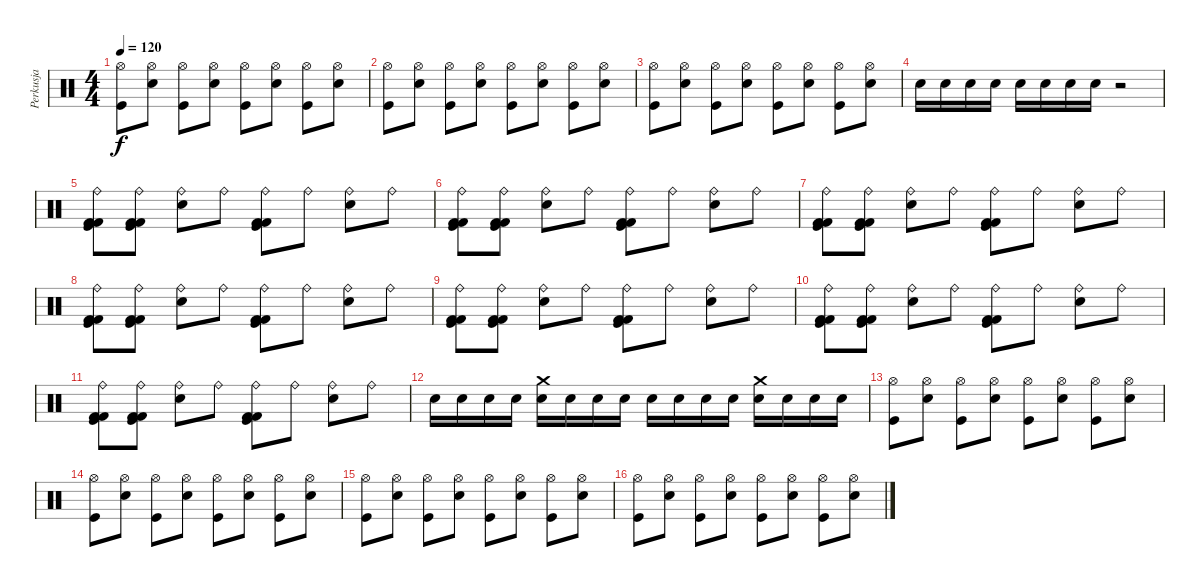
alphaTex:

\track ("Perkusja" "Perkusja") {instrument percussion}
\staff {score}
\articulation defaults
\ts (4 4)
\tempo 120
\clef neutral
\ks c
("Kick (hit)" "Hi-Hat (open)").8{dy f} ("Snare (hit) 2" "Hi-Hat (open)").8 ("Kick (hit)" "Hi-Hat (open)").8 ("Snare (hit) 2" "Hi-Hat (open)").8 ("Kick (hit)" "Hi-Hat (open)").8 ("Snare (hit) 2" "Hi-Hat (open)").8 ("Kick (hit)" "Hi-Hat (open)").8 ("Snare (hit) 2" "Hi-Hat (open)").8 |
("Kick (hit)" "Hi-Hat (open)").8 ("Snare (hit) 2" "Hi-Hat (open)").8 ("Kick (hit)" "Hi-Hat (open)").8 ("Snare (hit) 2" "Hi-Hat (open)").8 ("Kick (hit)" "Hi-Hat (open)").8 ("Snare (hit) 2" "Hi-Hat (open)").8 ("Kick (hit)" "Hi-Hat (open)").8 ("Snare (hit) 2" "Hi-Hat (open)").8 |
("Kick (hit)" "Hi-Hat (open)").8 ("Snare (hit) 2" "Hi-Hat (open)").8 ("Kick (hit)" "Hi-Hat (open)").8 ("Snare (hit) 2" "Hi-Hat (open)").8 ("Kick (hit)" "Hi-Hat (open)").8 ("Snare (hit) 2" "Hi-Hat (open)").8 ("Kick (hit)" "Hi-Hat (open)").8 ("Snare (hit) 2" "Hi-Hat (open)").8 |
"Snare (hit) 2".16 "Snare (hit) 2".16 "Snare (hit) 2".16 "Snare (hit) 2".16 "Snare (hit) 2".16 "Snare (hit) 2".16 "Snare (hit) 2".16 "Snare (hit) 2".16 r.2 |
("Kick (hit) 2" "Ride (bell)" "Kick (hit) 2" "Kick (hit)").8 ("Kick (hit) 2" "Ride (bell)" "Kick (hit) 2" "Kick (hit)").8 ("Ride (bell)" "Snare (hit) 2").8 "Ride (bell)".8 ("Kick (hit) 2" "Ride (bell)" "Kick (hit) 2" "Kick (hit)").8 "Ride (bell)".8 ("Ride (bell)" "Snare (hit) 2").8 "Ride (bell)".8 |
("Kick (hit) 2" "Ride (bell)" "Kick (hit) 2" "Kick (hit)").8 ("Kick (hit) 2" "Ride (bell)" "Kick (hit) 2" "Kick (hit)").8 ("Ride (bell)" "Snare (hit) 2").8 "Ride (bell)".8 ("Kick (hit) 2" "Ride (bell)" "Kick (hit) 2" "Kick (hit)").8 "Ride (bell)".8 ("Ride (bell)" "Snare (hit) 2").8 "Ride (bell)".8 |
("Kick (hit) 2" "Ride (bell)" "Kick (hit) 2" "Kick (hit)").8 ("Kick (hit) 2" "Ride (bell)" "Kick (hit) 2" "Kick (hit)").8 ("Ride (bell)" "Snare (hit) 2").8 "Ride (bell)".8 ("Kick (hit) 2" "Ride (bell)" "Kick (hit) 2" "Kick (hit)").8 "Ride (bell)".8 ("Ride (bell)" "Snare (hit) 2").8 "Ride (bell)".8 |
("Kick (hit) 2" "Ride (bell)" "Kick (hit) 2" "Kick (hit)").8 ("Kick (hit) 2" "Ride (bell)" "Kick (hit) 2" "Kick (hit)").8 ("Ride (bell)" "Snare (hit) 2").8 "Ride (bell)".8 ("Kick (hit) 2" "Ride (bell)" "Kick (hit) 2" "Kick (hit)").8 "Ride (bell)".8 ("Ride (bell)" "Snare (hit) 2").8 "Ride (bell)".8 |
("Kick (hit) 2" "Ride (bell)" "Kick (hit) 2" "Kick (hit)").8 ("Kick (hit) 2" "Ride (bell)" "Kick (hit) 2" "Kick (hit)").8 ("Ride (bell)" "Snare (hit) 2").8 "Ride (bell)".8 ("Kick (hit) 2" "Ride (bell)" "Kick (hit) 2" "Kick (hit)").8 "Ride (bell)".8 ("Ride (bell)" "Snare (hit) 2").8 "Ride (bell)".8 |
("Kick (hit) 2" "Ride (bell)" "Kick (hit) 2" "Kick (hit)").8 ("Kick (hit) 2" "Ride (bell)" "Kick (hit) 2" "Kick (hit)").8 ("Ride (bell)" "Snare (hit) 2").8 "Ride (bell)".8 ("Kick (hit) 2" "Ride (bell)" "Kick (hit) 2" "Kick (hit)").8 "Ride (bell)".8 ("Ride (bell)" "Snare (hit) 2").8 "Ride (bell)".8 |
("Kick (hit) 2" "Ride (bell)" "Kick (hit) 2" "Kick (hit)").8 ("Kick (hit) 2" "Ride (bell)" "Kick (hit) 2" "Kick (hit)").8 ("Ride (bell)" "Snare (hit) 2").8 "Ride (bell)".8 ("Kick (hit) 2" "Ride (bell)" "Kick (hit) 2" "Kick (hit)").8 "Ride (bell)".8 ("Ride (bell)" "Snare (hit) 2").8 "Ride (bell)".8 |
"Snare (hit) 2".16 "Snare (hit) 2".16 "Snare (hit) 2".16 "Snare (hit) 2".16 ("Crash medium (hit)" "Snare (hit) 2").16 "Snare (hit) 2".16 "Snare (hit) 2".16 "Snare (hit) 2".16 "Snare (hit) 2".16 "Snare (hit) 2".16 "Snare (hit) 2".16 "Snare (hit) 2".16 ("Crash medium (hit)" "Snare (hit) 2").16 "Snare (hit) 2".16 "Snare (hit) 2".16 "Snare (hit) 2".16 |
("Kick (hit)" "Hi-Hat (open)").8 ("Snare (hit) 2" "Hi-Hat (open)").8 ("Kick (hit)" "Hi-Hat (open)").8 ("Snare (hit) 2" "Hi-Hat (open)").8 ("Kick (hit)" "Hi-Hat (open)").8 ("Snare (hit) 2" "Hi-Hat (open)").8 ("Kick (hit)" "Hi-Hat (open)").8 ("Snare (hit) 2" "Hi-Hat (open)").8 |
("Kick (hit)" "Hi-Hat (open)").8 ("Snare (hit) 2" "Hi-Hat (open)").8 ("Kick (hit)" "Hi-Hat (open)").8 ("Snare (hit) 2" "Hi-Hat (open)").8 ("Kick (hit)" "Hi-Hat (open)").8 ("Snare (hit) 2" "Hi-Hat (open)").8 ("Kick (hit)" "Hi-Hat (open)").8 ("Snare (hit) 2" "Hi-Hat (open)").8 |
("Kick (hit)" "Hi-Hat (open)").8 ("Snare (hit) 2" "Hi-Hat (open)").8 ("Kick (hit)" "Hi-Hat (open)").8 ("Snare (hit) 2" "Hi-Hat (open)").8 ("Kick (hit)" "Hi-Hat (open)").8 ("Snare (hit) 2" "Hi-Hat (open)").8 ("Kick (hit)" "Hi-Hat (open)").8 ("Snare (hit) 2" "Hi-Hat (open)").8 |
("Kick (hit)" "Hi-Hat (open)").8 ("Snare (hit) 2" "Hi-Hat (open)").8 ("Kick (hit)" "Hi-Hat (open)").8 ("Snare (hit) 2" "Hi-Hat (open)").8 ("Kick (hit)" "Hi-Hat (open)").8 ("Snare (hit) 2" "Hi-Hat (open)").8 ("Kick (hit)" "Hi-Hat (open)").8 ("Snare (hit) 2" "Hi-Hat (open)").8
